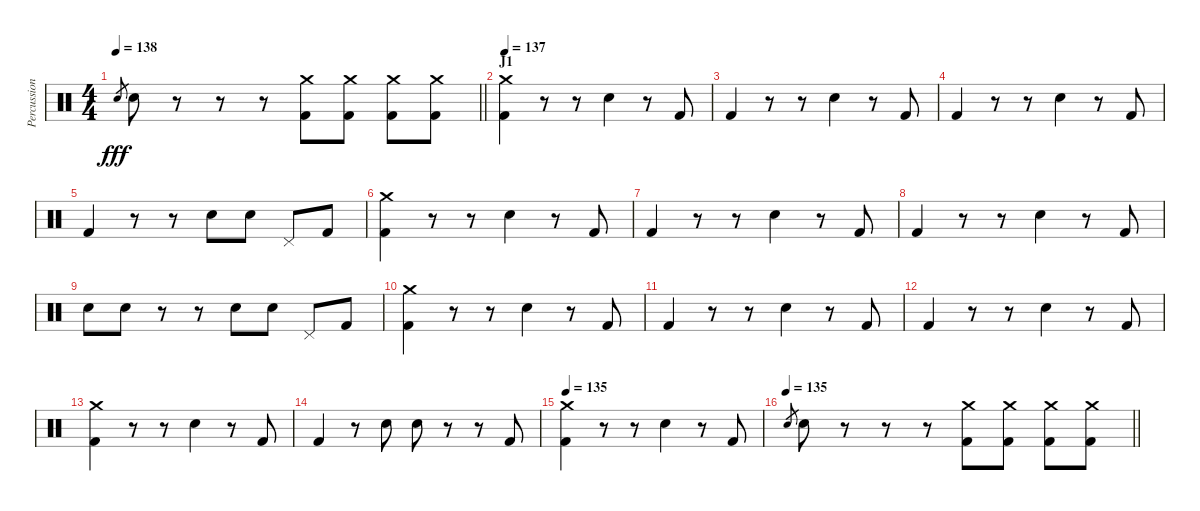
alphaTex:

\track ("Percussion" "Percussion") {instrument percussion}
\staff {score}
\articulation defaults
\ts (4 4)
\tempo 138
\clef neutral
\barLineRight lightlight
\ks c "Electric Snare (hit)".8{gr dy fff} "Electric Snare (hit)".8
r.8 r.8 r.8 ("Kick (hit) 2" "Crash medium (hit)").8 ("Kick (hit) 2" "Crash medium (hit)").8 ("Kick (hit) 2" "Crash medium (hit)").8 ("Kick (hit) 2" "Crash medium (hit)").8 |
\section ("" "J1")
\tempo 137
("Kick (hit) 2" "Crash medium (hit)").4 r.8 r.8 "Electric Snare (hit)".4 r.8 "Kick (hit) 2".8 |
"Kick (hit) 2".4 r.8 r.8 "Electric Snare (hit)".4 r.8 "Kick (hit) 2".8 |
"Kick (hit) 2".4 r.8 r.8 "Electric Snare (hit)".4 r.8 "Kick (hit) 2".8 |
"Kick (hit) 2".4 r.8 r.8 "Electric Snare (hit)".8 "Electric Snare (hit)".8 "Pedal Hi-Hat (hit)".8 "Kick (hit) 2".8 |
("Kick (hit) 2" "Crash medium (hit)").4 r.8 r.8 "Electric Snare (hit)".4 r.8 "Kick (hit) 2".8 |
"Kick (hit) 2".4 r.8 r.8 "Electric Snare (hit)".4 r.8 "Kick (hit) 2".8 |
"Kick (hit) 2".4 r.8 r.8 "Electric Snare (hit)".4 r.8 "Kick (hit) 2".8 |
"Electric Snare (hit)".8 "Electric Snare (hit)".8 r.8 r.8 "Electric Snare (hit)".8 "Electric Snare (hit)".8 "Pedal Hi-Hat (hit)".8 "Kick (hit) 2".8 |
("Kick (hit) 2" "Crash medium (hit)").4 r.8 r.8 "Electric Snare (hit)".4 r.8 "Kick (hit) 2".8 |
"Kick (hit) 2".4 r.8 r.8 "Electric Snare (hit)".4 r.8 "Kick (hit) 2".8 |
"Kick (hit) 2".4 r.8 r.8 "Electric Snare (hit)".4 r.8 "Kick (hit) 2".8 |
("Kick (hit) 2" "Crash medium (hit)").4 r.8 r.8 "Electric Snare (hit)".4 r.8 "Kick (hit) 2".8 |
"Kick (hit) 2".4 r.8 "Electric Snare (hit)".8 "Electric Snare (hit)".8 r.8 r.8 "Kick (hit) 2".8 |
\tempo 135
("Kick (hit) 2" "Crash medium (hit)").4 r.8 r.8 "Electric Snare (hit)".4 r.8 "Kick (hit) 2".8 |
\tempo 135
\barLineRight lightlight "Electric Snare (hit)".8{gr} "Electric Snare (hit)".8
r.8 r.8 r.8 ("Kick (hit) 2" "Crash medium (hit)").8 ("Kick (hit) 2" "Crash medium (hit)").8 ("Kick (hit) 2" "Crash medium (hit)").8 ("Kick (hit) 2" "Crash medium (hit)").8
